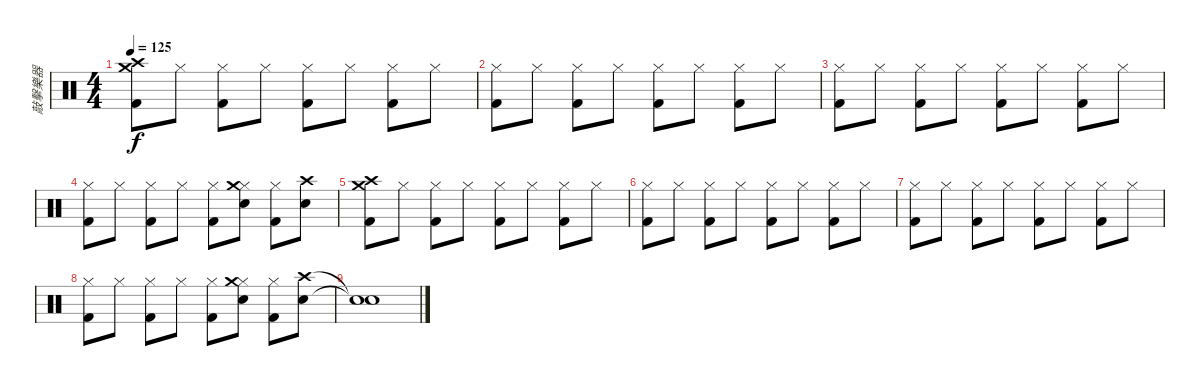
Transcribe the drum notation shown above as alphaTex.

\track ("敲擊樂器" "敲擊樂器") {instrument percussion}
\staff {score}
\articulation defaults
\ts (4 4)
\tempo 125
\clef neutral
\ks c
("Crash medium (hit)" "Crash high (hit)" "Kick (hit) 2").8{dy f} "Hi-Hat (closed)".8 ("Hi-Hat (closed)" "Kick (hit) 2").8 "Hi-Hat (closed)".8 ("Hi-Hat (closed)" "Kick (hit) 2").8 "Hi-Hat (closed)".8 ("Hi-Hat (closed)" "Kick (hit) 2").8 "Hi-Hat (closed)".8 |
("Hi-Hat (closed)" "Kick (hit) 2").8 "Hi-Hat (closed)".8 ("Hi-Hat (closed)" "Kick (hit) 2").8 "Hi-Hat (closed)".8 ("Hi-Hat (closed)" "Kick (hit) 2").8 "Hi-Hat (closed)".8 ("Hi-Hat (closed)" "Kick (hit) 2").8 "Hi-Hat (closed)".8 |
("Hi-Hat (closed)" "Kick (hit) 2").8 "Hi-Hat (closed)".8 ("Hi-Hat (closed)" "Kick (hit) 2").8 "Hi-Hat (closed)".8 ("Hi-Hat (closed)" "Kick (hit) 2").8 "Hi-Hat (closed)".8 ("Hi-Hat (closed)" "Kick (hit) 2").8 "Hi-Hat (closed)".8 |
("Hi-Hat (closed)" "Kick (hit) 2").8 "Hi-Hat (closed)".8 ("Hi-Hat (closed)" "Kick (hit) 2").8 "Hi-Hat (closed)".8 ("Hi-Hat (closed)" "Kick (hit) 2").8 ("Hi-Hat (closed)" "Crash medium (hit)" "Snare (hit) 2").8 ("Hi-Hat (closed)" "Kick (hit) 2").8 ("Crash high (hit)" "Snare (hit) 2").8 |
("Crash medium (hit)" "Crash high (hit)" "Kick (hit) 2").8 "Hi-Hat (closed)".8 ("Hi-Hat (closed)" "Kick (hit) 2").8 "Hi-Hat (closed)".8 ("Hi-Hat (closed)" "Kick (hit) 2").8 "Hi-Hat (closed)".8 ("Hi-Hat (closed)" "Kick (hit) 2").8 "Hi-Hat (closed)".8 |
("Hi-Hat (closed)" "Kick (hit) 2").8 "Hi-Hat (closed)".8 ("Hi-Hat (closed)" "Kick (hit) 2").8 "Hi-Hat (closed)".8 ("Hi-Hat (closed)" "Kick (hit) 2").8 "Hi-Hat (closed)".8 ("Hi-Hat (closed)" "Kick (hit) 2").8 "Hi-Hat (closed)".8 |
("Hi-Hat (closed)" "Kick (hit) 2").8 "Hi-Hat (closed)".8 ("Hi-Hat (closed)" "Kick (hit) 2").8 "Hi-Hat (closed)".8 ("Hi-Hat (closed)" "Kick (hit) 2").8 "Hi-Hat (closed)".8 ("Hi-Hat (closed)" "Kick (hit) 2").8 "Hi-Hat (closed)".8 |
("Hi-Hat (closed)" "Kick (hit) 2").8 "Hi-Hat (closed)".8 ("Hi-Hat (closed)" "Kick (hit) 2").8 "Hi-Hat (closed)".8 ("Hi-Hat (closed)" "Kick (hit) 2").8 ("Hi-Hat (closed)" "Crash medium (hit)" "Snare (hit) 2").8 ("Hi-Hat (closed)" "Kick (hit) 2").8 ("Crash high (hit)" "Snare (hit) 2").8 |
("Snare (hit)"{t} "Snare (hit)"{t}).1
